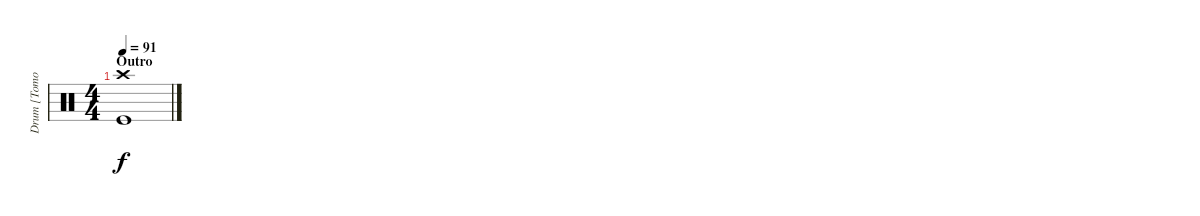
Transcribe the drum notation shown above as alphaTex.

\track ("Drum [Tomoya]" "Drum [Tomo") {instrument percussion}
\staff {score}
\articulation defaults
\ts (4 4)
\section ("" "Outro")
\tempo 91
\clef neutral
\ks c
("Crash high (hit)" "Kick (hit)").1{dy f}
